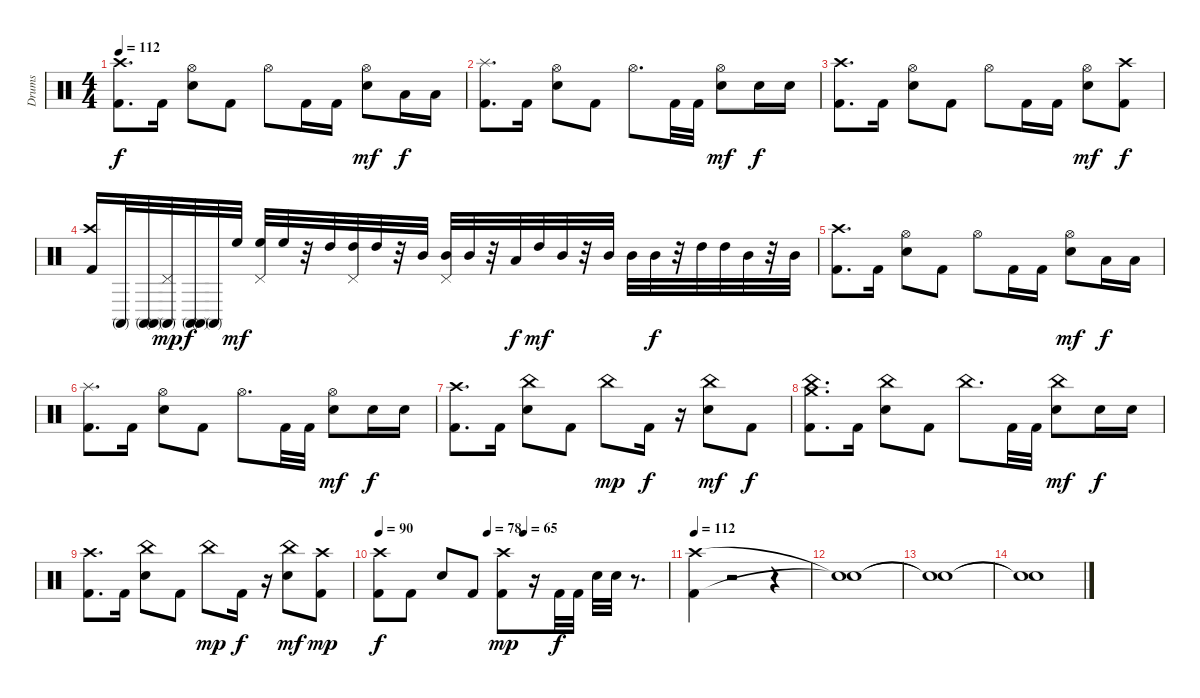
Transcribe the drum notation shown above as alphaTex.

\track ("Drums" "Drums") {instrument percussion}
\staff {score}
\articulation defaults
\ts (4 4)
\tempo 112
\clef neutral
\ks c
("Kick (hit) 2" "Crash high (hit)").8{d dy f} "Kick (hit) 2".16 ("Electric Snare (hit)" "Hi-Hat (open)").8 "Kick (hit) 2".8 "Hi-Hat (open)".8 "Kick (hit) 2".16 "Kick (hit) 2".16 ("Electric Snare (hit)" "Hi-Hat (open)").8{dy mf} "Low Tom (hit)".16{dy f} "Low Tom (hit)".16 |
("Kick (hit) 2" "Splash (hit)").8{d} "Kick (hit) 2".16 ("Electric Snare (hit)" "Hi-Hat (open)").8 "Kick (hit) 2".8 "Hi-Hat (open)".8{d} "Kick (hit) 2".32 "Kick (hit) 2".32 ("Hi-Hat (open)" "Electric Snare (hit)").8{dy mf} "Electric Snare (hit)".16{dy f} "Electric Snare (hit)".16 |
("Crash high (hit)" "Kick (hit) 2").8{d} "Kick (hit) 2".16 ("Electric Snare (hit)" "Hi-Hat (open)").8 "Kick (hit) 2".8 "Hi-Hat (open)".8 "Kick (hit) 2".16 "Kick (hit) 2".16 ("Hi-Hat (open)" "Electric Snare (hit)").8{dy mf} ("Kick (hit) 2" "Crash high (hit)").8{dy f} |
("Crash high (hit)" "Kick (hit) 2").16 "Conga high (mute)".32 ("Conga high (mute)" "Conga high (mute)").32 ("Pedal Hi-Hat (hit)" "Conga high (mute)").32{dy mp} ("Conga high (mute)" "Conga high (mute)").32{dy f} "Conga high (mute)".32 "High Floor Tom (hit)".32{dy mf} ("Pedal Hi-Hat (hit)" "High Floor Tom (hit)").32 "High Floor Tom (hit)".32 r.32 "High Tom (hit)".32 ("Pedal Hi-Hat (hit)" "High Tom (hit)").32 "High Tom (hit)".32 r.32 "Mid Tom (hit)".32 ("Pedal Hi-Hat (hit)" "Mid Tom (hit)").32 "Mid Tom (hit)".32 r.32 "Low Tom (hit)".32{dy f} "High Tom (hit)".32{dy mf} "Mid Tom (hit)".32 r.32 "Mid Tom (hit)".32 "Mid Tom (hit)".32 "Mid Tom (hit)".32{dy f} r.32 "High Tom (hit)".32 "High Tom (hit)".32 "Mid Tom (hit)".32 r.32 "Mid Tom (hit)".32 |
("Crash high (hit)" "Kick (hit) 2").8{d} "Kick (hit) 2".16 ("Electric Snare (hit)" "Hi-Hat (open)").8 "Kick (hit) 2".8 "Hi-Hat (open)".8 "Kick (hit) 2".16 "Kick (hit) 2".16 ("Electric Snare (hit)" "Hi-Hat (open)").8{dy mf} "Low Tom (hit)".16{dy f} "Low Tom (hit)".16 |
("Kick (hit) 2" "Splash (hit)").8{d} "Kick (hit) 2".16 ("Electric Snare (hit)" "Hi-Hat (open)").8 "Kick (hit) 2".8 "Hi-Hat (open)".8{d} "Kick (hit) 2".32 "Kick (hit) 2".32 ("Hi-Hat (open)" "Electric Snare (hit)").8{dy mf} "Electric Snare (hit)".16{dy f} "Electric Snare (hit)".16 |
("Kick (hit) 2" "Crash high (hit)").8{d} "Kick (hit) 2".16 ("Electric Snare (hit)" "China (hit)").8 "Kick (hit) 2".8 "China (hit)".8{dy mp} "Kick (hit) 2".16{dy f} r.16 ("Electric Snare (hit)" "China (hit)").8{dy mf} "Kick (hit) 2".8{dy f} |
("Kick (hit) 2" "Crash medium (hit)" "China (hit)").8{d} "Kick (hit) 2".16 ("Electric Snare (hit)" "China (hit)").8 "Kick (hit) 2".8 "China (hit)".8{d} "Kick (hit) 2".32 "Kick (hit) 2".32 ("Electric Snare (hit)" "China (hit)").8{dy mf} "Electric Snare (hit)".16{dy f} "Electric Snare (hit)".16 |
("Crash high (hit)" "Kick (hit) 2").8{d} "Kick (hit) 2".16 ("Electric Snare (hit)" "China (hit)").8 "Kick (hit) 2".8 "China (hit)".8{dy mp} "Kick (hit) 2".16{dy f} r.16 ("Electric Snare (hit)" "China (hit)").8{dy mf} ("Kick (hit) 2" "Crash high (hit)").8{dy mp} |
\tempo 90
\tempo (78 0.375)
\tempo (65 0.5)
("Crash high (hit)" "Kick (hit) 2").8{dy f} "Kick (hit) 2".8 "Electric Snare (hit)".8 "Kick (hit) 2".8 ("Kick (hit) 2" "Crash high (hit)").8{dy mp} r.16 "Kick (hit) 2".32{dy f} "Kick (hit) 2".32 "Electric Snare (hit)".32 "Electric Snare (hit)".32 r.8{d} |
\tempo 112
("Kick (hit) 2" "Crash high (hit)").4 r.2 r.4 |
("Snare (hit)"{t} "Snare (hit)"{t}).1 |
("Snare (hit)"{t} "Snare (hit)"{t}).1 |
("Snare (hit)"{t} "Snare (hit)"{t}).1
